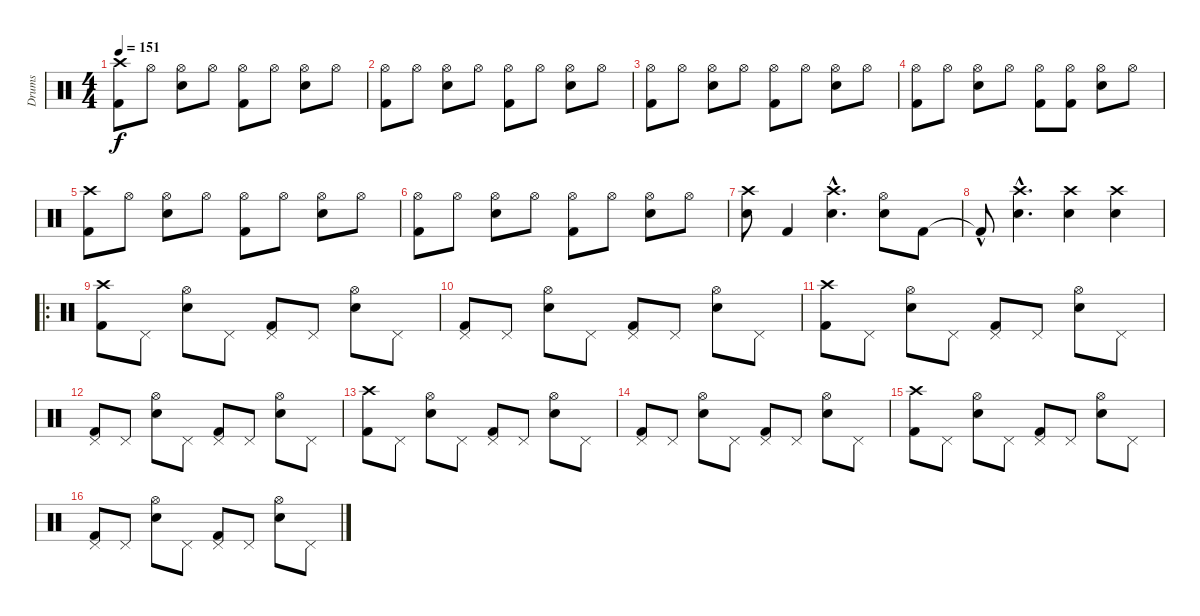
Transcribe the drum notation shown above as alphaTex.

\track ("Drums" "Drums") {instrument percussion}
\staff {score}
\articulation defaults
\ts (4 4)
\tempo 151
\clef neutral
\ks c
("Crash high (hit)" "Kick (hit) 2").8{dy f} "Hi-Hat (open)".8 ("Hi-Hat (open)" "Electric Snare (hit)").8 "Hi-Hat (open)".8 ("Hi-Hat (open)" "Kick (hit) 2").8 "Hi-Hat (open)".8 ("Hi-Hat (open)" "Electric Snare (hit)").8 "Hi-Hat (open)".8 |
("Hi-Hat (open)" "Kick (hit) 2").8 "Hi-Hat (open)".8 ("Hi-Hat (open)" "Electric Snare (hit)").8 "Hi-Hat (open)".8 ("Hi-Hat (open)" "Kick (hit) 2").8 "Hi-Hat (open)".8 ("Hi-Hat (open)" "Electric Snare (hit)").8 "Hi-Hat (open)".8 |
("Hi-Hat (open)" "Kick (hit) 2").8 "Hi-Hat (open)".8 ("Hi-Hat (open)" "Electric Snare (hit)").8 "Hi-Hat (open)".8 ("Hi-Hat (open)" "Kick (hit) 2").8 "Hi-Hat (open)".8 ("Hi-Hat (open)" "Electric Snare (hit)").8 "Hi-Hat (open)".8 |
("Hi-Hat (open)" "Kick (hit) 2").8 "Hi-Hat (open)".8 ("Hi-Hat (open)" "Electric Snare (hit)").8 "Hi-Hat (open)".8 ("Hi-Hat (open)" "Kick (hit) 2").8 ("Hi-Hat (open)" "Kick (hit) 2").8 ("Hi-Hat (open)" "Electric Snare (hit)").8 "Hi-Hat (open)".8 |
("Crash high (hit)" "Kick (hit) 2").8 "Hi-Hat (open)".8 ("Hi-Hat (open)" "Electric Snare (hit)").8 "Hi-Hat (open)".8 ("Hi-Hat (open)" "Kick (hit) 2").8 "Hi-Hat (open)".8 ("Hi-Hat (open)" "Electric Snare (hit)").8 "Hi-Hat (open)".8 |
("Hi-Hat (open)" "Kick (hit) 2").8 "Hi-Hat (open)".8 ("Hi-Hat (open)" "Electric Snare (hit)").8 "Hi-Hat (open)".8 ("Hi-Hat (open)" "Kick (hit) 2").8 "Hi-Hat (open)".8 ("Hi-Hat (open)" "Electric Snare (hit)").8 "Hi-Hat (open)".8 |
("Crash high (hit)" "Electric Snare (hit)").8 "Kick (hit) 2".4 ("Crash high (hit)"{hac} "Electric Snare (hit)"{hac}).4{d} ("Hi-Hat (open)" "Electric Snare (hit)").8 "Kick (hit) 2".8 |
"Kick (hit) 2"{hac t}.8 ("Crash high (hit)"{hac} "Electric Snare (hit)"{hac}).4{d} ("Crash high (hit)" "Electric Snare (hit)").4 ("Crash high (hit)" "Electric Snare (hit)").4 |
\ro
("Crash high (hit)" "Kick (hit) 2").8 "Pedal Hi-Hat (hit)".8 ("Hi-Hat (open)" "Electric Snare (hit)").8 "Pedal Hi-Hat (hit)".8 ("Pedal Hi-Hat (hit)" "Kick (hit) 2").8 "Pedal Hi-Hat (hit)".8 ("Hi-Hat (open)" "Electric Snare (hit)").8 "Pedal Hi-Hat (hit)".8 |
("Pedal Hi-Hat (hit)" "Kick (hit) 2").8 "Pedal Hi-Hat (hit)".8 ("Hi-Hat (open)" "Electric Snare (hit)").8 "Pedal Hi-Hat (hit)".8 ("Pedal Hi-Hat (hit)" "Kick (hit) 2").8 "Pedal Hi-Hat (hit)".8 ("Hi-Hat (open)" "Electric Snare (hit)").8 "Pedal Hi-Hat (hit)".8 |
("Crash high (hit)" "Kick (hit) 2").8 "Pedal Hi-Hat (hit)".8 ("Hi-Hat (open)" "Electric Snare (hit)").8 "Pedal Hi-Hat (hit)".8 ("Pedal Hi-Hat (hit)" "Kick (hit) 2").8 "Pedal Hi-Hat (hit)".8 ("Hi-Hat (open)" "Electric Snare (hit)").8 "Pedal Hi-Hat (hit)".8 |
("Pedal Hi-Hat (hit)" "Kick (hit) 2").8 "Pedal Hi-Hat (hit)".8 ("Hi-Hat (open)" "Electric Snare (hit)").8 "Pedal Hi-Hat (hit)".8 ("Pedal Hi-Hat (hit)" "Kick (hit) 2").8 "Pedal Hi-Hat (hit)".8 ("Hi-Hat (open)" "Electric Snare (hit)").8 "Pedal Hi-Hat (hit)".8 |
("Crash high (hit)" "Kick (hit) 2").8 "Pedal Hi-Hat (hit)".8 ("Hi-Hat (open)" "Electric Snare (hit)").8 "Pedal Hi-Hat (hit)".8 ("Pedal Hi-Hat (hit)" "Kick (hit) 2").8 "Pedal Hi-Hat (hit)".8 ("Hi-Hat (open)" "Electric Snare (hit)").8 "Pedal Hi-Hat (hit)".8 |
("Pedal Hi-Hat (hit)" "Kick (hit) 2").8 "Pedal Hi-Hat (hit)".8 ("Hi-Hat (open)" "Electric Snare (hit)").8 "Pedal Hi-Hat (hit)".8 ("Pedal Hi-Hat (hit)" "Kick (hit) 2").8 "Pedal Hi-Hat (hit)".8 ("Hi-Hat (open)" "Electric Snare (hit)").8 "Pedal Hi-Hat (hit)".8 |
("Crash high (hit)" "Kick (hit) 2").8 "Pedal Hi-Hat (hit)".8 ("Hi-Hat (open)" "Electric Snare (hit)").8 "Pedal Hi-Hat (hit)".8 ("Pedal Hi-Hat (hit)" "Kick (hit) 2").8 "Pedal Hi-Hat (hit)".8 ("Hi-Hat (open)" "Electric Snare (hit)").8 "Pedal Hi-Hat (hit)".8 |
("Pedal Hi-Hat (hit)" "Kick (hit) 2").8 "Pedal Hi-Hat (hit)".8 ("Hi-Hat (open)" "Electric Snare (hit)").8 "Pedal Hi-Hat (hit)".8 ("Pedal Hi-Hat (hit)" "Kick (hit) 2").8 "Pedal Hi-Hat (hit)".8 ("Hi-Hat (open)" "Electric Snare (hit)").8 "Pedal Hi-Hat (hit)".8
